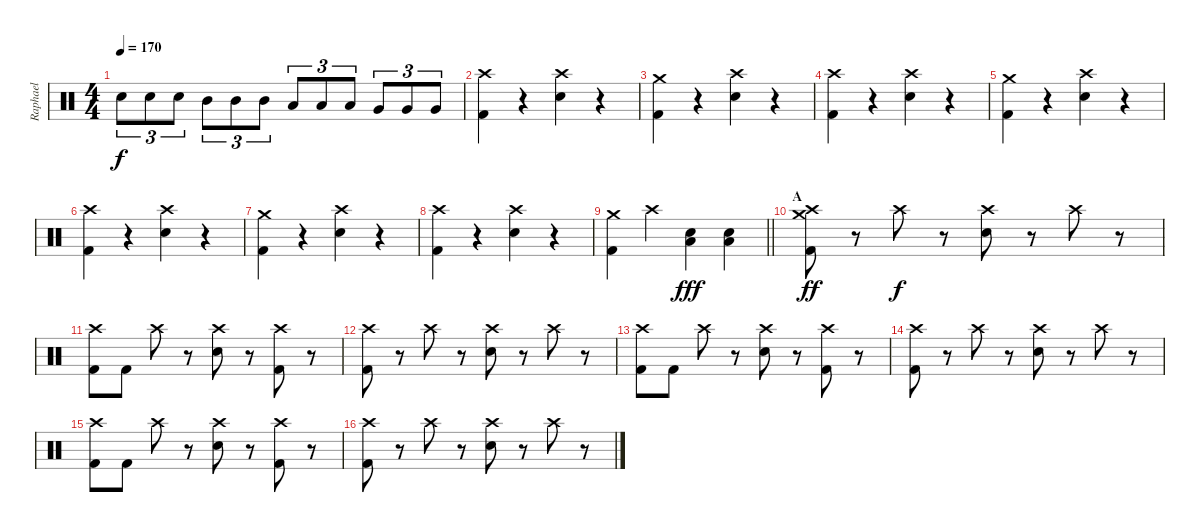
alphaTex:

\track ("Raphael" "Raphael") {instrument percussion}
\staff {score}
\articulation defaults
\ts (4 4)
\tempo 170
\clef neutral
\ks c "Snare (hit) 2".8{tu (3 2) dy f} "Snare (hit) 2".8{tu (3 2)} "Snare (hit) 2".8{tu (3 2)} "Mid Tom (hit)".8{tu (3 2)} "Mid Tom (hit)".8{tu (3 2)} "Mid Tom (hit)".8{tu (3 2)} "Low Tom (hit)".8{tu (3 2)} "Low Tom (hit)".8{tu (3 2)} "Low Tom (hit)".8{tu (3 2)} "Very Low Tom (hit)".8{tu (3 2)} "Very Low Tom (hit)".8{tu (3 2)} "Very Low Tom (hit)".8{tu (3 2)}
|
("Kick (hit) 2" "Crash high (hit)").4 r.4 ("Snare (hit) 2" "Crash high (hit)").4 r.4 |
("Kick (hit) 2" "Crash medium (hit)").4 r.4 ("Snare (hit) 2" "Crash high (hit)").4 r.4 |
("Kick (hit) 2" "Crash high (hit)").4 r.4 ("Snare (hit) 2" "Crash high (hit)").4 r.4 |
("Kick (hit) 2" "Crash medium (hit)").4 r.4 ("Snare (hit) 2" "Crash high (hit)").4 r.4 |
("Kick (hit) 2" "Crash high (hit)").4 r.4 ("Snare (hit) 2" "Crash high (hit)").4 r.4 |
("Kick (hit) 2" "Crash medium (hit)").4 r.4 ("Snare (hit) 2" "Crash high (hit)").4 r.4 |
("Kick (hit) 2" "Crash high (hit)").4 r.4 ("Snare (hit) 2" "Crash high (hit)").4 r.4 |
\barLineRight lightlight
("Kick (hit) 2" "Crash medium (hit)").4 "Crash high (hit)".4 ("Snare (hit) 2" "Low Floor Tom (hit)").4{dy fff} ("Snare (hit) 2" "Low Floor Tom (hit)").4 |
\section ("" "A")
("Kick (hit) 2" "Crash medium (hit)" "Crash high (hit)").8{dy ff} r.8 "Crash high (hit)".8{dy f} r.8 ("Snare (hit) 2" "Crash high (hit)").8 r.8 "Crash high (hit)".8 r.8 |
("Kick (hit) 2" "Crash high (hit)").8 "Kick (hit) 2".8 "Crash high (hit)".8 r.8 ("Snare (hit) 2" "Crash high (hit)").8 r.8 ("Kick (hit) 2" "Crash high (hit)").8 r.8 |
("Kick (hit) 2" "Crash high (hit)").8 r.8 "Crash high (hit)".8 r.8 ("Snare (hit) 2" "Crash high (hit)").8 r.8 "Crash high (hit)".8 r.8 |
("Kick (hit) 2" "Crash high (hit)").8 "Kick (hit) 2".8 "Crash high (hit)".8 r.8 ("Snare (hit) 2" "Crash high (hit)").8 r.8 ("Kick (hit) 2" "Crash high (hit)").8 r.8 |
("Kick (hit) 2" "Crash high (hit)").8 r.8 "Crash high (hit)".8 r.8 ("Snare (hit) 2" "Crash high (hit)").8 r.8 "Crash high (hit)".8 r.8 |
("Kick (hit) 2" "Crash high (hit)").8 "Kick (hit) 2".8 "Crash high (hit)".8 r.8 ("Snare (hit) 2" "Crash high (hit)").8 r.8 ("Kick (hit) 2" "Crash high (hit)").8 r.8 |
("Kick (hit) 2" "Crash high (hit)").8 r.8 "Crash high (hit)".8 r.8 ("Snare (hit) 2" "Crash high (hit)").8 r.8 "Crash high (hit)".8 r.8
